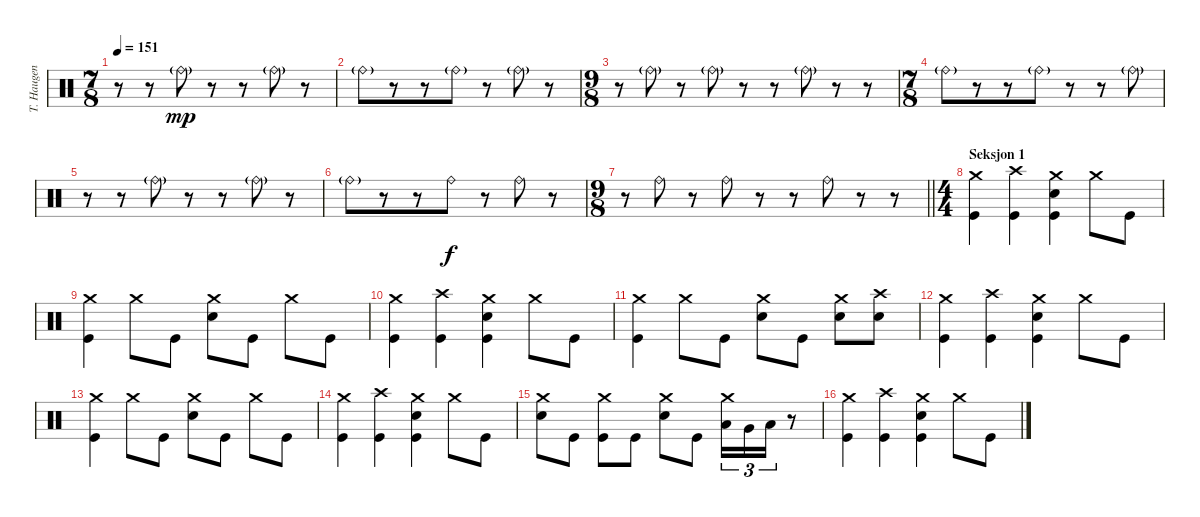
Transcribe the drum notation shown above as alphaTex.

\track ("T. Haugen" "T. Haugen") {instrument percussion}
\staff {score}
\articulation defaults
\ts (7 8)
\tempo 151
\clef neutral
\ks c
r.8{dy mp} r.8 "Ride (bell)"{g}.8 r.8 r.8 "Ride (bell)"{g}.8 r.8 |
"Ride (bell)"{g}.8 r.8 r.8 "Ride (bell)"{g}.8 r.8 "Ride (bell)"{g}.8 r.8 |
\ts (9 8)
r.8 "Ride (bell)"{g}.8 r.8 "Ride (bell)"{g}.8 r.8 r.8 "Ride (bell)"{g}.8 r.8 r.8 |
\ts (7 8)
"Ride (bell)"{g}.8{volume 12} r.8 r.8 "Ride (bell)"{g}.8 r.8 r.8 "Ride (bell)"{g}.8 |
r.8 r.8 "Ride (bell)"{g}.8 r.8 r.8 "Ride (bell)"{g}.8 r.8 |
"Ride (bell)"{g}.8{volume 16} r.8 r.8 "Ride (bell)".8{dy f} r.8 "Ride (bell)".8 r.8 |
\ts (9 8)
\barLineRight lightlight
r.8 "Ride (bell)".8 r.8 "Ride (bell)".8 r.8 r.8 "Ride (bell)".8 r.8 r.8 |
\ts (4 4)
\section ("" "Seksjon 1")
("Crash medium (hit)" "Kick (hit)").4{volume 16} ("Crash high (hit)" "Kick (hit)").4 ("Crash medium (hit)" "Electric Snare (hit)" "Kick (hit)").4 "Crash medium (hit)".8 "Kick (hit)".8 |
("Crash medium (hit)" "Kick (hit)").4 "Crash medium (hit)".8 "Kick (hit)".8 ("Crash medium (hit)" "Electric Snare (hit)").8 "Kick (hit)".8 "Crash medium (hit)".8 "Kick (hit)".8 |
("Crash medium (hit)" "Kick (hit)").4 ("Crash high (hit)" "Kick (hit)").4 ("Crash medium (hit)" "Electric Snare (hit)" "Kick (hit)").4 "Crash medium (hit)".8 "Kick (hit)".8 |
("Crash medium (hit)" "Kick (hit)").4 "Crash medium (hit)".8 "Kick (hit)".8 ("Crash medium (hit)" "Electric Snare (hit)").8 "Kick (hit)".8 ("Crash medium (hit)" "Electric Snare (hit)").8 ("Crash high (hit)" "Electric Snare (hit)").8 |
("Crash medium (hit)" "Kick (hit)").4 ("Crash high (hit)" "Kick (hit)").4 ("Crash medium (hit)" "Electric Snare (hit)" "Kick (hit)").4 "Crash medium (hit)".8 "Kick (hit)".8 |
("Crash medium (hit)" "Kick (hit)").4 "Crash medium (hit)".8 "Kick (hit)".8 ("Crash medium (hit)" "Electric Snare (hit)").8 "Kick (hit)".8 "Crash medium (hit)".8 "Kick (hit)".8 |
("Crash medium (hit)" "Kick (hit)").4 ("Crash high (hit)" "Kick (hit)").4 ("Crash medium (hit)" "Electric Snare (hit)" "Kick (hit)").4 "Crash medium (hit)".8 "Kick (hit)".8 |
("Crash medium (hit)" "Electric Snare (hit)").8 "Kick (hit)".8 ("Crash medium (hit)" "Kick (hit)").8 "Kick (hit)".8 ("Crash medium (hit)" "Electric Snare (hit)").8 "Kick (hit)".8 ("Crash medium (hit)" "Low Tom (hit)").16{tu (3 2)} "Very Low Tom (hit)".16{tu (3 2)} "Low Floor Tom (hit)".16{tu (3 2)} r.8 |
("Crash medium (hit)" "Kick (hit)").4 ("Crash high (hit)" "Kick (hit)").4 ("Crash medium (hit)" "Electric Snare (hit)" "Kick (hit)").4 "Crash medium (hit)".8 "Kick (hit)".8
